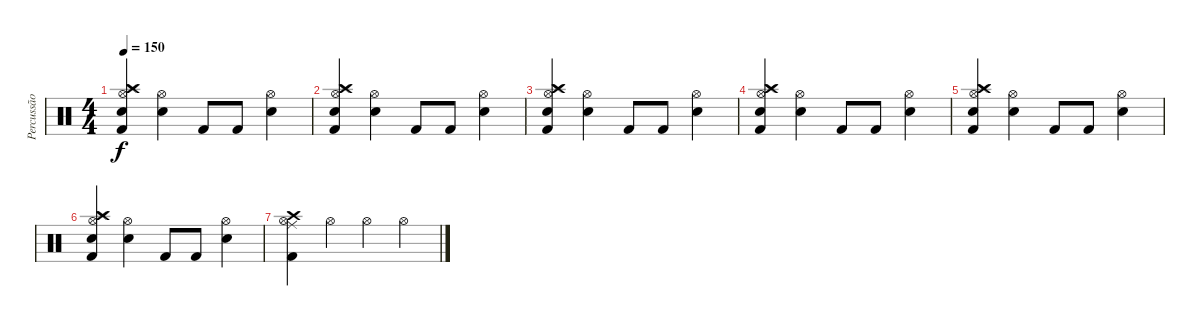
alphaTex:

\track ("Percussão" "Percussão") {instrument percussion}
\staff {score}
\articulation defaults
\ts (4 4)
\tempo 150
\clef neutral
\ks c
("Kick (hit) 2" "Crash high (hit)" "Splash (hit)" "Hi-Hat (open)" "Electric Snare (hit)").4{dy f} ("Hi-Hat (open)" "Electric Snare (hit)").4 "Kick (hit) 2".8 "Kick (hit) 2".8 ("Hi-Hat (open)" "Electric Snare (hit)").4 |
("Kick (hit) 2" "Crash high (hit)" "Splash (hit)" "Hi-Hat (open)" "Electric Snare (hit)").4 ("Hi-Hat (open)" "Electric Snare (hit)").4 "Kick (hit) 2".8 "Kick (hit) 2".8 ("Hi-Hat (open)" "Electric Snare (hit)").4 |
("Kick (hit) 2" "Crash high (hit)" "Splash (hit)" "Hi-Hat (open)" "Electric Snare (hit)").4 ("Hi-Hat (open)" "Electric Snare (hit)").4 "Kick (hit) 2".8 "Kick (hit) 2".8 ("Hi-Hat (open)" "Electric Snare (hit)").4 |
("Kick (hit) 2" "Crash high (hit)" "Splash (hit)" "Hi-Hat (open)" "Electric Snare (hit)").4 ("Hi-Hat (open)" "Electric Snare (hit)").4 "Kick (hit) 2".8 "Kick (hit) 2".8 ("Hi-Hat (open)" "Electric Snare (hit)").4 |
("Kick (hit) 2" "Crash high (hit)" "Splash (hit)" "Hi-Hat (open)" "Electric Snare (hit)").4 ("Hi-Hat (open)" "Electric Snare (hit)").4 "Kick (hit) 2".8 "Kick (hit) 2".8 ("Hi-Hat (open)" "Electric Snare (hit)").4 |
("Kick (hit) 2" "Crash high (hit)" "Splash (hit)" "Hi-Hat (open)" "Electric Snare (hit)").4 ("Hi-Hat (open)" "Electric Snare (hit)").4 "Kick (hit) 2".8 "Kick (hit) 2".8 ("Hi-Hat (open)" "Electric Snare (hit)").4 |
("Kick (hit) 2" "Crash high (hit)" "Ride (middle)" "Hi-Hat (open)").4 "Hi-Hat (open)".4 "Hi-Hat (open)".4 "Hi-Hat (open)".4
